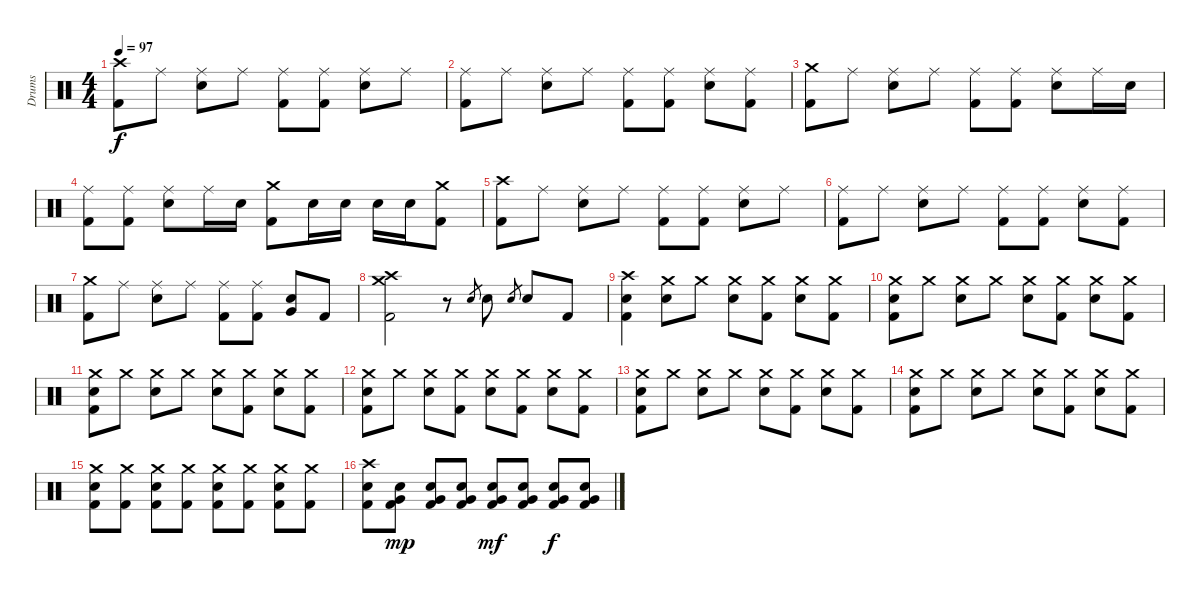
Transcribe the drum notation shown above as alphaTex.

\track ("Drums" "Drums") {instrument percussion}
\staff {score}
\articulation defaults
\ts (4 4)
\tempo 97
\clef neutral
\ks c
("Crash high (hit)" "Kick (hit) 2").8{dy f} "Ride (middle)".8 ("Ride (middle)" "Snare (hit) 2").8 "Ride (middle)".8 ("Ride (middle)" "Kick (hit) 2").8 ("Ride (middle)" "Kick (hit) 2").8 ("Ride (middle)" "Snare (hit) 2").8 "Ride (middle)".8 |
("Ride (middle)" "Kick (hit) 2").8 "Ride (middle)".8 ("Ride (middle)" "Snare (hit) 2").8 "Ride (middle)".8 ("Ride (middle)" "Kick (hit) 2").8 ("Ride (middle)" "Kick (hit) 2").8 ("Ride (middle)" "Snare (hit) 2").8 ("Ride (middle)" "Kick (hit) 2").8 |
("Crash medium (hit)" "Kick (hit) 2").8 "Ride (middle)".8 ("Ride (middle)" "Snare (hit) 2").8 "Ride (middle)".8 ("Ride (middle)" "Kick (hit) 2").8 ("Ride (middle)" "Kick (hit) 2").8 ("Ride (middle)" "Snare (hit) 2").8 "Ride (middle)".16 "Snare (hit) 2".16 |
("Ride (middle)" "Kick (hit) 2").8 ("Ride (middle)" "Kick (hit) 2").8 ("Ride (middle)" "Snare (hit) 2").8 "Ride (middle)".16 "Snare (hit) 2".16 ("Crash medium (hit)" "Kick (hit) 2").8 "Snare (hit) 2".16 "Snare (hit) 2".16 "Snare (hit) 2".16 "Snare (hit) 2".16 ("Crash medium (hit)" "Kick (hit) 2").8 |
("Crash high (hit)" "Kick (hit) 2").8 "Ride (middle)".8 ("Ride (middle)" "Snare (hit) 2").8 "Ride (middle)".8 ("Ride (middle)" "Kick (hit) 2").8 ("Ride (middle)" "Kick (hit) 2").8 ("Ride (middle)" "Snare (hit) 2").8 "Ride (middle)".8 |
("Ride (middle)" "Kick (hit) 2").8 "Ride (middle)".8 ("Ride (middle)" "Snare (hit) 2").8 "Ride (middle)".8 ("Ride (middle)" "Kick (hit) 2").8 ("Ride (middle)" "Kick (hit) 2").8 ("Ride (middle)" "Snare (hit) 2").8 ("Ride (middle)" "Kick (hit) 2").8 |
("Crash medium (hit)" "Kick (hit) 2").8 "Ride (middle)".8 ("Ride (middle)" "Snare (hit) 2").8 "Ride (middle)".8 ("Ride (middle)" "Kick (hit) 2").8 ("Ride (middle)" "Kick (hit) 2").8 ("Snare (hit) 2" "Very Low Tom (hit)").8 "Kick (hit) 2".8 |
("Crash high (hit)" "Crash medium (hit)" "Kick (hit) 2").2 r.8 "Snare (hit) 2".8{gr} "Snare (hit) 2".8 "Snare (hit) 2".8{gr} "Snare (hit) 2".8 "Kick (hit) 2".8 |
("Crash high (hit)" "Snare (hit) 2" "Kick (hit) 2").4 ("Crash medium (hit)" "Snare (hit) 2").8 "Crash medium (hit)".8 ("Crash medium (hit)" "Snare (hit) 2").8 ("Crash medium (hit)" "Kick (hit) 2").8 ("Crash medium (hit)" "Snare (hit) 2").8 ("Crash medium (hit)" "Kick (hit) 2").8 |
("Crash medium (hit)" "Snare (hit) 2" "Kick (hit) 2").8 "Crash medium (hit)".8 ("Crash medium (hit)" "Snare (hit) 2").8 "Crash medium (hit)".8 ("Crash medium (hit)" "Snare (hit) 2").8 ("Crash medium (hit)" "Kick (hit) 2").8 ("Crash medium (hit)" "Snare (hit) 2").8 ("Crash medium (hit)" "Kick (hit) 2").8 |
("Crash medium (hit)" "Snare (hit) 2" "Kick (hit) 2").8 "Crash medium (hit)".8 ("Crash medium (hit)" "Snare (hit) 2").8 "Crash medium (hit)".8 ("Crash medium (hit)" "Snare (hit) 2").8 ("Crash medium (hit)" "Kick (hit) 2").8 ("Crash medium (hit)" "Snare (hit) 2").8 ("Crash medium (hit)" "Kick (hit) 2").8 |
("Crash medium (hit)" "Snare (hit) 2" "Kick (hit) 2").8 "Crash medium (hit)".8 ("Crash medium (hit)" "Snare (hit) 2").8 ("Crash medium (hit)" "Kick (hit) 2").8 ("Crash medium (hit)" "Snare (hit) 2").8 ("Crash medium (hit)" "Kick (hit) 2").8 ("Crash medium (hit)" "Snare (hit) 2").8 ("Crash medium (hit)" "Kick (hit) 2").8 |
("Crash medium (hit)" "Snare (hit) 2" "Kick (hit) 2").8 "Crash medium (hit)".8 ("Crash medium (hit)" "Snare (hit) 2").8 "Crash medium (hit)".8 ("Crash medium (hit)" "Snare (hit) 2").8 ("Crash medium (hit)" "Kick (hit) 2").8 ("Crash medium (hit)" "Snare (hit) 2").8 ("Crash medium (hit)" "Kick (hit) 2").8 |
("Crash medium (hit)" "Snare (hit) 2" "Kick (hit) 2").8 "Crash medium (hit)".8 ("Crash medium (hit)" "Snare (hit) 2").8 "Crash medium (hit)".8 ("Crash medium (hit)" "Snare (hit) 2").8 ("Crash medium (hit)" "Kick (hit) 2").8 ("Crash medium (hit)" "Snare (hit) 2").8 ("Crash medium (hit)" "Kick (hit) 2").8 |
("Crash medium (hit)" "Snare (hit) 2" "Kick (hit) 2").8 ("Crash medium (hit)" "Kick (hit) 2").8 ("Crash medium (hit)" "Snare (hit) 2" "Kick (hit) 2").8 ("Crash medium (hit)" "Kick (hit) 2").8 ("Crash medium (hit)" "Snare (hit) 2" "Kick (hit) 2").8 ("Crash medium (hit)" "Kick (hit) 2").8 ("Crash medium (hit)" "Snare (hit) 2" "Kick (hit) 2").8 ("Crash medium (hit)" "Kick (hit) 2").8 |
("Crash high (hit)" "Snare (hit) 2" "Kick (hit) 2").8 ("Snare (hit) 2" "Very Low Tom (hit)" "Kick (hit) 2").8{dy mp} ("Snare (hit) 2" "Very Low Tom (hit)" "Kick (hit) 2").8 ("Snare (hit) 2" "Very Low Tom (hit)" "Kick (hit) 2").8 ("Snare (hit) 2" "Very Low Tom (hit)" "Kick (hit) 2").8{dy mf} ("Snare (hit) 2" "Very Low Tom (hit)" "Kick (hit) 2").8 ("Snare (hit) 2" "Very Low Tom (hit)" "Kick (hit) 2").8{dy f} ("Snare (hit) 2" "Very Low Tom (hit)" "Kick (hit) 2").8
